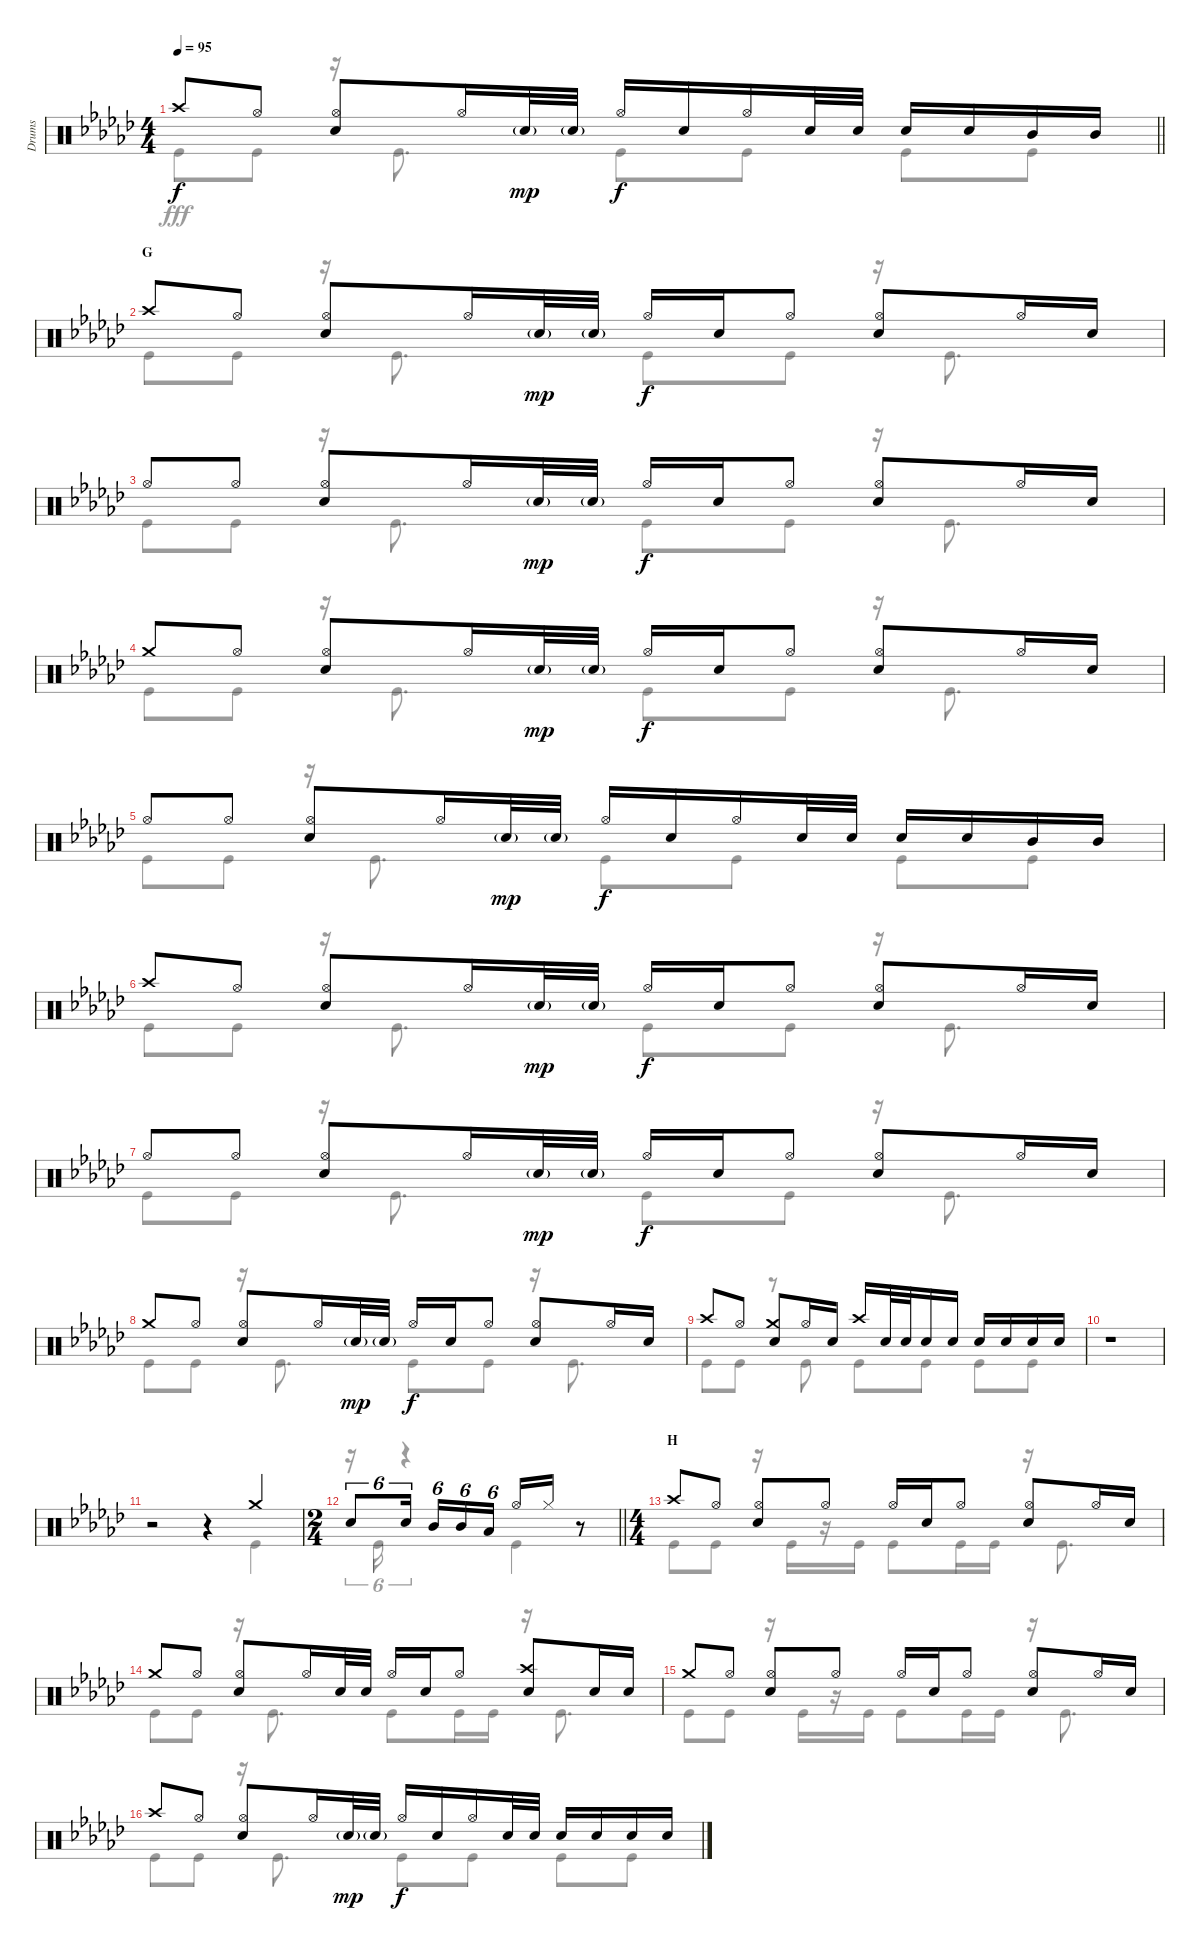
\track ("Drums" "Drums") {instrument percussion}
\staff {score}
\articulation defaults
\voice
\ts (4 4)
\tempo 95
\clef neutral
\barLineRight lightlight
\ks gb "Crash high (hit)".8{dy f} "Hi-Hat (open)".8
("Hi-Hat (open)" "Snare (hit) 2").8 "Hi-Hat (open)".16 "Snare (hit) 2"{g}.32{dy mp} "Snare (hit) 2"{g}.32 "Hi-Hat (open)".16{dy f} "Snare (hit) 2".16 "Hi-Hat (open)".16 "Snare (hit) 2".32 "Snare (hit) 2".32 "Snare (hit) 2".16 "Snare (hit) 2".16 "Mid Tom (hit)".16 "Mid Tom (hit)".16 |
\section ("" "G")
"Crash high (hit)".8 "Hi-Hat (open)".8 ("Hi-Hat (open)" "Snare (hit) 2").8 "Hi-Hat (open)".16 "Snare (hit) 2"{g}.32{dy mp} "Snare (hit) 2"{g}.32 "Hi-Hat (open)".16{dy f} "Snare (hit) 2".16 "Hi-Hat (open)".8 ("Hi-Hat (open)" "Snare (hit) 2").8 "Hi-Hat (open)".16 "Snare (hit) 2".16 |
"Hi-Hat (open)".8 "Hi-Hat (open)".8 ("Hi-Hat (open)" "Snare (hit) 2").8 "Hi-Hat (open)".16 "Snare (hit) 2"{g}.32{dy mp} "Snare (hit) 2"{g}.32 "Hi-Hat (open)".16{dy f} "Snare (hit) 2".16 "Hi-Hat (open)".8 ("Hi-Hat (open)" "Snare (hit) 2").8 "Hi-Hat (open)".16 "Snare (hit) 2".16 |
"Crash medium (hit)".8 "Hi-Hat (open)".8 ("Hi-Hat (open)" "Snare (hit) 2").8 "Hi-Hat (open)".16 "Snare (hit) 2"{g}.32{dy mp} "Snare (hit) 2"{g}.32 "Hi-Hat (open)".16{dy f} "Snare (hit) 2".16 "Hi-Hat (open)".8 ("Hi-Hat (open)" "Snare (hit) 2").8 "Hi-Hat (open)".16 "Snare (hit) 2".16 |
"Hi-Hat (open)".8 "Hi-Hat (open)".8 ("Hi-Hat (open)" "Snare (hit) 2").8 "Hi-Hat (open)".16 "Snare (hit) 2"{g}.32{dy mp} "Snare (hit) 2"{g}.32 "Hi-Hat (open)".16{dy f} "Snare (hit) 2".16 "Hi-Hat (open)".16 "Snare (hit) 2".32 "Snare (hit) 2".32 "Snare (hit) 2".16 "Snare (hit) 2".16 "Mid Tom (hit)".16 "Mid Tom (hit)".16 |
"Crash high (hit)".8 "Hi-Hat (open)".8 ("Hi-Hat (open)" "Snare (hit) 2").8 "Hi-Hat (open)".16 "Snare (hit) 2"{g}.32{dy mp} "Snare (hit) 2"{g}.32 "Hi-Hat (open)".16{dy f} "Snare (hit) 2".16 "Hi-Hat (open)".8 ("Hi-Hat (open)" "Snare (hit) 2").8 "Hi-Hat (open)".16 "Snare (hit) 2".16 |
"Hi-Hat (open)".8 "Hi-Hat (open)".8 ("Hi-Hat (open)" "Snare (hit) 2").8 "Hi-Hat (open)".16 "Snare (hit) 2"{g}.32{dy mp} "Snare (hit) 2"{g}.32 "Hi-Hat (open)".16{dy f} "Snare (hit) 2".16 "Hi-Hat (open)".8 ("Hi-Hat (open)" "Snare (hit) 2").8 "Hi-Hat (open)".16 "Snare (hit) 2".16 |
"Crash medium (hit)".8 "Hi-Hat (open)".8 ("Hi-Hat (open)" "Snare (hit) 2").8 "Hi-Hat (open)".16 "Snare (hit) 2"{g}.32{dy mp} "Snare (hit) 2"{g}.32 "Hi-Hat (open)".16{dy f} "Snare (hit) 2".16 "Hi-Hat (open)".8 ("Hi-Hat (open)" "Snare (hit) 2").8 "Hi-Hat (open)".16 "Snare (hit) 2".16 |
"Crash high (hit)".8 "Hi-Hat (open)".8 ("Crash medium (hit)" "Snare (hit) 2").8 "Hi-Hat (open)".16 "Snare (hit) 2".16 "Crash high (hit)".16 "Snare (hit) 2".32 "Snare (hit) 2".32 "Snare (hit) 2".16 "Snare (hit) 2".16 "Snare (hit) 2".16 "Snare (hit) 2".16 "Snare (hit) 2".16 "Snare (hit) 2".16 |
r.1 |
r.2 r.4 "Crash medium (hit)".4 |
\ts (2 4)
\barLineRight lightlight "Snare (hit) 2".8{tu (6 4)} "Snare (hit) 2".16{tu (6 4) beam splitsecondary} "Mid Tom (hit)".16{tu (6 4)} "Mid Tom (hit)".16{tu (6 4)} "Low Tom (hit)".16{tu (6 4)} "Hi-Hat (open)".16 "Hi-Hat (closed)".16
r.8 |
\ts (4 4)
\section ("" "H")
"Crash high (hit)".8 "Hi-Hat (open)".8 ("Hi-Hat (open)" "Snare (hit) 2").8 "Hi-Hat (open)".8 "Hi-Hat (open)".16 "Snare (hit) 2".16 "Hi-Hat (open)".8 ("Hi-Hat (open)" "Snare (hit) 2").8 "Hi-Hat (open)".16 "Snare (hit) 2".16 |
"Crash medium (hit)".8 "Hi-Hat (open)".8 ("Hi-Hat (open)" "Snare (hit) 2").8 "Hi-Hat (open)".16 "Snare (hit) 2".32 "Snare (hit) 2".32 "Hi-Hat (open)".16 "Snare (hit) 2".16 "Hi-Hat (open)".8 ("Crash high (hit)" "Snare (hit) 2").8 "Snare (hit) 2".16 "Snare (hit) 2".16 |
"Crash medium (hit)".8 "Hi-Hat (open)".8 ("Hi-Hat (open)" "Snare (hit) 2").8 "Hi-Hat (open)".8 "Hi-Hat (open)".16 "Snare (hit) 2".16 "Hi-Hat (open)".8 ("Hi-Hat (open)" "Snare (hit) 2").8 "Hi-Hat (open)".16 "Snare (hit) 2".16 |
"Crash high (hit)".8 "Hi-Hat (open)".8 ("Hi-Hat (open)" "Snare (hit) 2").8 "Hi-Hat (open)".16 "Snare (hit) 2"{g}.32{dy mp} "Snare (hit) 2"{g}.32 "Hi-Hat (open)".16{dy f} "Snare (hit) 2".16 "Hi-Hat (open)".16 "Snare (hit) 2".32 "Snare (hit) 2".32 "Snare (hit) 2".16 "Snare (hit) 2".16 "Snare (hit) 2".16 "Snare (hit) 2".16
\voice
\clef neutral
\ottava regular
\simile none
\barLineRight lightlight
\ks gb "Kick (hit)".8{dy fff} "Kick (hit)".8
r.16 "Kick (hit)".8{d} "Kick (hit)".8 "Kick (hit)".8 "Kick (hit)".8 "Kick (hit)".8 |
"Kick (hit)".8 "Kick (hit)".8 r.16 "Kick (hit)".8{d} "Kick (hit)".8 "Kick (hit)".8 r.16 "Kick (hit)".8{d} |
"Kick (hit)".8 "Kick (hit)".8 r.16 "Kick (hit)".8{d} "Kick (hit)".8 "Kick (hit)".8 r.16 "Kick (hit)".8{d} |
"Kick (hit)".8 "Kick (hit)".8 r.16 "Kick (hit)".8{d} "Kick (hit)".8 "Kick (hit)".8 r.16 "Kick (hit)".8{d} |
"Kick (hit)".8 "Kick (hit)".8 r.16 "Kick (hit)".8{d} "Kick (hit)".8 "Kick (hit)".8 "Kick (hit)".8 "Kick (hit)".8 |
"Kick (hit)".8 "Kick (hit)".8 r.16 "Kick (hit)".8{d} "Kick (hit)".8 "Kick (hit)".8 r.16 "Kick (hit)".8{d} |
"Kick (hit)".8 "Kick (hit)".8 r.16 "Kick (hit)".8{d} "Kick (hit)".8 "Kick (hit)".8 r.16 "Kick (hit)".8{d} |
"Kick (hit)".8 "Kick (hit)".8 r.16 "Kick (hit)".8{d} "Kick (hit)".8 "Kick (hit)".8 r.16 "Kick (hit)".8{d} |
"Kick (hit)".8 "Kick (hit)".8 r.8 "Kick (hit)".8 "Kick (hit)".8 "Kick (hit)".8 "Kick (hit)".8 "Kick (hit)".8 |
r.1 |
r.2 r.4 "Kick (hit)".4 |
\barLineRight lightlight
r.16{tu (6 4)} "Kick (hit)".16{tu (6 4)} r.4{tu (6 4)} "Kick (hit)".4 |
"Kick (hit)".8 "Kick (hit)".8 r.16 "Kick (hit)".16 r.16 "Kick (hit)".16 "Kick (hit)".8 "Kick (hit)".16 "Kick (hit)".16 r.16 "Kick (hit)".8{d} |
"Kick (hit)".8 "Kick (hit)".8 r.16 "Kick (hit)".8{d} "Kick (hit)".8 "Kick (hit)".16 "Kick (hit)".16 r.16 "Kick (hit)".8{d} |
"Kick (hit)".8 "Kick (hit)".8 r.16 "Kick (hit)".16 r.16 "Kick (hit)".16 "Kick (hit)".8 "Kick (hit)".16 "Kick (hit)".16 r.16 "Kick (hit)".8{d} |
"Kick (hit)".8 "Kick (hit)".8 r.16 "Kick (hit)".8{d} "Kick (hit)".8 "Kick (hit)".8 "Kick (hit)".8 "Kick (hit)".8
